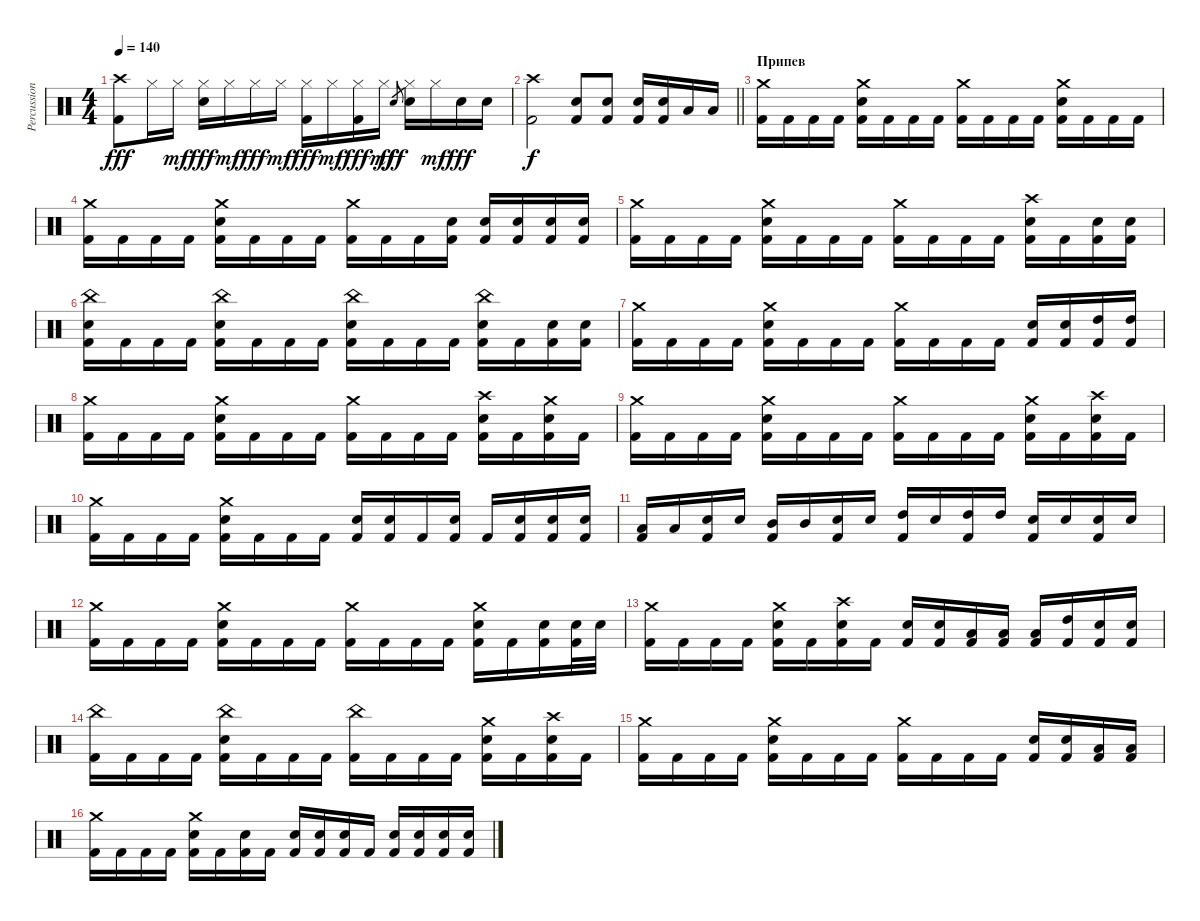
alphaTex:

\track ("Percussion" "Percussion") {instrument percussion}
\staff {score}
\articulation defaults
\ts (4 4)
\tempo 140
\clef neutral
\ks c
("Crash high (hit)" "Kick (hit) 2").8{dy fff} "Hi-Hat (closed)".16 "Hi-Hat (closed)".16{dy mf} ("Hi-Hat (closed)" "Snare (hit) 2").16{dy fff} "Hi-Hat (closed)".16{dy mf} "Hi-Hat (closed)".16{dy fff} "Hi-Hat (closed)".16{dy mf} ("Hi-Hat (closed)" "Kick (hit) 2").16{dy fff} "Hi-Hat (closed)".16{dy mf} ("Hi-Hat (closed)" "Kick (hit) 2").16{dy fff} "Hi-Hat (closed)".16{dy mf} "Snare (hit) 2".8{gr dy fff} ("Hi-Hat (closed)" "Snare (hit) 2").16 "Hi-Hat (closed)".16{dy mf} "Snare (hit) 2".16{dy fff} "Snare (hit) 2".16 |
\barLineRight lightlight
("Crash high (hit)" "Kick (hit) 2").2{dy f} ("Snare (hit) 2" "Kick (hit) 2").8 ("Snare (hit) 2" "Kick (hit) 2").8 ("Snare (hit) 2" "Kick (hit) 2").16 ("Snare (hit) 2" "Kick (hit) 2").16 "Low Tom (hit)".16 "Low Tom (hit)".16 |
\section ("" "Припев")
("Crash medium (hit)" "Kick (hit) 2").16 "Kick (hit) 2".16 "Kick (hit) 2".16 "Kick (hit) 2".16 ("Crash medium (hit)" "Snare (hit) 2" "Kick (hit) 2").16 "Kick (hit) 2".16 "Kick (hit) 2".16 "Kick (hit) 2".16 ("Crash medium (hit)" "Kick (hit) 2").16 "Kick (hit) 2".16 "Kick (hit) 2".16 "Kick (hit) 2".16 ("Crash medium (hit)" "Snare (hit) 2" "Kick (hit) 2").16 "Kick (hit) 2".16 "Kick (hit) 2".16 "Kick (hit) 2".16 |
("Crash medium (hit)" "Kick (hit) 2").16 "Kick (hit) 2".16 "Kick (hit) 2".16 "Kick (hit) 2".16 ("Crash medium (hit)" "Snare (hit) 2" "Kick (hit) 2").16 "Kick (hit) 2".16 "Kick (hit) 2".16 "Kick (hit) 2".16 ("Crash medium (hit)" "Kick (hit) 2").16 "Kick (hit) 2".16 "Kick (hit) 2".16 ("Snare (hit) 2" "Kick (hit) 2").16 ("Snare (hit) 2" "Kick (hit) 2").16 ("Snare (hit) 2" "Kick (hit) 2").16 ("Snare (hit) 2" "Kick (hit) 2").16 ("Snare (hit) 2" "Kick (hit) 2").16 |
("Crash medium (hit)" "Kick (hit) 2").16 "Kick (hit) 2".16 "Kick (hit) 2".16 "Kick (hit) 2".16 ("Crash medium (hit)" "Snare (hit) 2" "Kick (hit) 2").16 "Kick (hit) 2".16 "Kick (hit) 2".16 "Kick (hit) 2".16 ("Crash medium (hit)" "Kick (hit) 2").16 "Kick (hit) 2".16 "Kick (hit) 2".16 "Kick (hit) 2".16 ("Crash high (hit)" "Snare (hit) 2" "Kick (hit) 2").16 "Kick (hit) 2".16 ("Snare (hit) 2" "Kick (hit) 2").16 ("Snare (hit) 2" "Kick (hit) 2").16 |
("China (hit)" "Snare (hit) 2" "Kick (hit) 2").16 "Kick (hit) 2".16 "Kick (hit) 2".16 "Kick (hit) 2".16 ("China (hit)" "Snare (hit) 2" "Kick (hit) 2").16 "Kick (hit) 2".16 "Kick (hit) 2".16 "Kick (hit) 2".16 ("China (hit)" "Snare (hit) 2" "Kick (hit) 2").16 "Kick (hit) 2".16 "Kick (hit) 2".16 "Kick (hit) 2".16 ("China (hit)" "Snare (hit) 2" "Kick (hit) 2").16 "Kick (hit) 2".16 ("Snare (hit) 2" "Kick (hit) 2").16 ("Snare (hit) 2" "Kick (hit) 2").16 |
("Crash medium (hit)" "Kick (hit) 2").16 "Kick (hit) 2".16 "Kick (hit) 2".16 "Kick (hit) 2".16 ("Crash medium (hit)" "Snare (hit) 2" "Kick (hit) 2").16 "Kick (hit) 2".16 "Kick (hit) 2".16 "Kick (hit) 2".16 ("Crash medium (hit)" "Kick (hit) 2").16 "Kick (hit) 2".16 "Kick (hit) 2".16 "Kick (hit) 2".16 ("Snare (hit) 2" "Kick (hit) 2").16 ("Snare (hit) 2" "Kick (hit) 2").16 ("High Tom (hit)" "Kick (hit) 2").16 ("High Tom (hit)" "Kick (hit) 2").16 |
("Crash medium (hit)" "Kick (hit) 2").16 "Kick (hit) 2".16 "Kick (hit) 2".16 "Kick (hit) 2".16 ("Crash medium (hit)" "Snare (hit) 2" "Kick (hit) 2").16 "Kick (hit) 2".16 "Kick (hit) 2".16 "Kick (hit) 2".16 ("Crash medium (hit)" "Kick (hit) 2").16 "Kick (hit) 2".16 "Kick (hit) 2".16 "Kick (hit) 2".16 ("Crash high (hit)" "Snare (hit) 2" "Kick (hit) 2").16 "Kick (hit) 2".16 ("Crash medium (hit)" "Snare (hit) 2" "Kick (hit) 2").16 "Kick (hit) 2".16 |
("Crash medium (hit)" "Kick (hit) 2").16 "Kick (hit) 2".16 "Kick (hit) 2".16 "Kick (hit) 2".16 ("Crash medium (hit)" "Snare (hit) 2" "Kick (hit) 2").16 "Kick (hit) 2".16 "Kick (hit) 2".16 "Kick (hit) 2".16 ("Crash medium (hit)" "Kick (hit) 2").16 "Kick (hit) 2".16 "Kick (hit) 2".16 "Kick (hit) 2".16 ("Crash medium (hit)" "Snare (hit) 2" "Kick (hit) 2").16 "Kick (hit) 2".16 ("Crash high (hit)" "Snare (hit) 2" "Kick (hit) 2").16 "Kick (hit) 2".16 |
("Crash medium (hit)" "Kick (hit) 2").16 "Kick (hit) 2".16 "Kick (hit) 2".16 "Kick (hit) 2".16 ("Crash medium (hit)" "Snare (hit) 2" "Kick (hit) 2").16 "Kick (hit) 2".16 "Kick (hit) 2".16 "Kick (hit) 2".16 ("Snare (hit) 2" "Kick (hit) 2").16 ("Snare (hit) 2" "Kick (hit) 2").16 "Kick (hit) 2".16 ("Snare (hit) 2" "Kick (hit) 2").16 "Kick (hit) 2".16 ("Snare (hit) 2" "Kick (hit) 2").16 ("Snare (hit) 2" "Kick (hit) 2").16 ("Snare (hit) 2" "Kick (hit) 2").16 |
("Low Tom (hit)" "Kick (hit) 2").16 "Low Tom (hit)".16 ("Snare (hit) 2" "Kick (hit) 2").16 "Snare (hit) 2".16 ("Mid Tom (hit)" "Kick (hit) 2").16 "Mid Tom (hit)".16 ("Snare (hit) 2" "Kick (hit) 2").16 "Snare (hit) 2".16 ("High Tom (hit)" "Kick (hit) 2").16 "Snare (hit) 2".16 ("High Tom (hit)" "Kick (hit) 2").16 "High Tom (hit)".16 ("Snare (hit) 2" "Kick (hit) 2").16 "Snare (hit) 2".16 ("Snare (hit) 2" "Kick (hit) 2").16 "Snare (hit) 2".16 |
("Crash medium (hit)" "Kick (hit) 2").16 "Kick (hit) 2".16 "Kick (hit) 2".16 "Kick (hit) 2".16 ("Crash medium (hit)" "Snare (hit) 2" "Kick (hit) 2").16 "Kick (hit) 2".16 "Kick (hit) 2".16 "Kick (hit) 2".16 ("Crash medium (hit)" "Kick (hit) 2").16 "Kick (hit) 2".16 "Kick (hit) 2".16 "Kick (hit) 2".16 ("Crash medium (hit)" "Snare (hit) 2" "Kick (hit) 2").16 "Kick (hit) 2".16 ("Snare (hit) 2" "Kick (hit) 2").16 ("Snare (hit) 2" "Kick (hit) 2").32 "Snare (hit) 2".32 |
("Crash medium (hit)" "Kick (hit) 2").16 "Kick (hit) 2".16 "Kick (hit) 2".16 "Kick (hit) 2".16 ("Crash medium (hit)" "Snare (hit) 2" "Kick (hit) 2").16 "Kick (hit) 2".16 ("Crash high (hit)" "Snare (hit) 2" "Kick (hit) 2").16 "Kick (hit) 2".16 ("Snare (hit) 2" "Kick (hit) 2").16 ("Snare (hit) 2" "Kick (hit) 2").16 ("Low Tom (hit)" "Kick (hit) 2").16 ("Low Tom (hit)" "Kick (hit) 2").16 ("Low Tom (hit)" "Kick (hit) 2").16 ("High Tom (hit)" "Kick (hit) 2").16 ("Snare (hit) 2" "Kick (hit) 2").16 ("Snare (hit) 2" "Kick (hit) 2").16 |
("China (hit)" "Kick (hit) 2").16 "Kick (hit) 2".16 "Kick (hit) 2".16 "Kick (hit) 2".16 ("China (hit)" "Snare (hit) 2" "Kick (hit) 2").16 "Kick (hit) 2".16 "Kick (hit) 2".16 "Kick (hit) 2".16 ("China (hit)" "Kick (hit) 2").16 "Kick (hit) 2".16 "Kick (hit) 2".16 "Kick (hit) 2".16 ("Crash medium (hit)" "Snare (hit) 2" "Kick (hit) 2").16 "Kick (hit) 2".16 ("Crash high (hit)" "Snare (hit) 2" "Kick (hit) 2").16 "Kick (hit) 2".16 |
("Crash medium (hit)" "Kick (hit) 2").16 "Kick (hit) 2".16 "Kick (hit) 2".16 "Kick (hit) 2".16 ("Crash medium (hit)" "Snare (hit) 2" "Kick (hit) 2").16 "Kick (hit) 2".16 "Kick (hit) 2".16 "Kick (hit) 2".16 ("Crash medium (hit)" "Kick (hit) 2").16 "Kick (hit) 2".16 "Kick (hit) 2".16 "Kick (hit) 2".16 ("Snare (hit) 2" "Kick (hit) 2").16 ("Snare (hit) 2" "Kick (hit) 2").16 ("Low Tom (hit)" "Kick (hit) 2").16 ("Low Tom (hit)" "Kick (hit) 2").16 |
("Crash medium (hit)" "Kick (hit) 2").16 "Kick (hit) 2".16 "Kick (hit) 2".16 "Kick (hit) 2".16 ("Crash medium (hit)" "Snare (hit) 2" "Kick (hit) 2").16 "Kick (hit) 2".16 ("Snare (hit) 2" "Kick (hit) 2").16 "Kick (hit) 2".16 ("Snare (hit) 2" "Kick (hit) 2").16 ("Snare (hit) 2" "Kick (hit) 2").16 ("Snare (hit) 2" "Kick (hit) 2").16 "Kick (hit) 2".16 ("Snare (hit) 2" "Kick (hit) 2").16 ("Snare (hit) 2" "Kick (hit) 2").16 ("Snare (hit) 2" "Kick (hit) 2").16 ("Snare (hit) 2" "Kick (hit) 2").16
